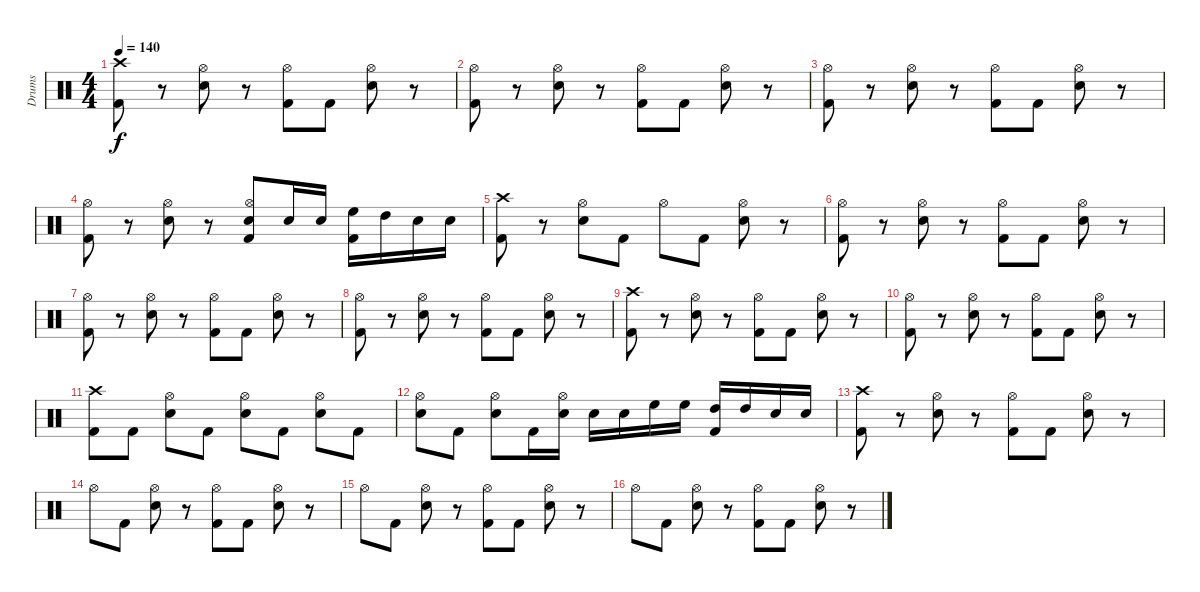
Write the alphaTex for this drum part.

\track ("Drums" "Drums") {instrument percussion}
\staff {score}
\articulation defaults
\ts (4 4)
\tempo 140
\clef neutral
\ks c
("Crash high (hit)" "Kick (hit) 2").8{dy f} r.8 ("Hi-Hat (open)" "Electric Snare (hit)").8 r.8 ("Hi-Hat (open)" "Kick (hit) 2").8 "Kick (hit) 2".8 ("Hi-Hat (open)" "Electric Snare (hit)").8 r.8 |
("Hi-Hat (open)" "Kick (hit) 2").8 r.8 ("Hi-Hat (open)" "Electric Snare (hit)").8 r.8 ("Hi-Hat (open)" "Kick (hit) 2").8 "Kick (hit) 2".8 ("Hi-Hat (open)" "Electric Snare (hit)").8 r.8 |
("Hi-Hat (open)" "Kick (hit) 2").8 r.8 ("Hi-Hat (open)" "Electric Snare (hit)").8 r.8 ("Hi-Hat (open)" "Kick (hit) 2").8 "Kick (hit) 2".8 ("Hi-Hat (open)" "Electric Snare (hit)").8 r.8 |
("Hi-Hat (open)" "Kick (hit) 2").8 r.8 ("Hi-Hat (open)" "Electric Snare (hit)").8 r.8 ("Hi-Hat (open)" "Electric Snare (hit)" "Kick (hit) 2").8 "Electric Snare (hit)".16 "Electric Snare (hit)".16 ("High Floor Tom (hit)" "Kick (hit) 2").16 "High Tom (hit)".16 "Electric Snare (hit)".16 "Electric Snare (hit)".16 |
("Crash high (hit)" "Kick (hit) 2").8 r.8 ("Hi-Hat (open)" "Electric Snare (hit)").8 "Kick (hit) 2".8 "Hi-Hat (open)".8 "Kick (hit) 2".8 ("Hi-Hat (open)" "Electric Snare (hit)").8 r.8 |
("Hi-Hat (open)" "Kick (hit) 2").8 r.8 ("Hi-Hat (open)" "Electric Snare (hit)").8 r.8 ("Hi-Hat (open)" "Kick (hit) 2").8 "Kick (hit) 2".8 ("Hi-Hat (open)" "Electric Snare (hit)").8 r.8 |
("Hi-Hat (open)" "Kick (hit) 2").8 r.8 ("Hi-Hat (open)" "Electric Snare (hit)").8 r.8 ("Hi-Hat (open)" "Kick (hit) 2").8 "Kick (hit) 2".8 ("Hi-Hat (open)" "Electric Snare (hit)").8 r.8 |
("Hi-Hat (open)" "Kick (hit) 2").8 r.8 ("Hi-Hat (open)" "Electric Snare (hit)").8 r.8 ("Hi-Hat (open)" "Kick (hit) 2").8 "Kick (hit) 2".8 ("Hi-Hat (open)" "Electric Snare (hit)").8 r.8 |
("Crash high (hit)" "Kick (hit) 2").8 r.8 ("Hi-Hat (open)" "Electric Snare (hit)").8 r.8 ("Hi-Hat (open)" "Kick (hit) 2").8 "Kick (hit) 2".8 ("Hi-Hat (open)" "Electric Snare (hit)").8 r.8 |
("Hi-Hat (open)" "Kick (hit) 2").8 r.8 ("Hi-Hat (open)" "Electric Snare (hit)").8 r.8 ("Hi-Hat (open)" "Kick (hit) 2").8 "Kick (hit) 2".8 ("Hi-Hat (open)" "Electric Snare (hit)").8 r.8 |
("Crash high (hit)" "Kick (hit) 2").8 "Kick (hit) 2".8 ("Hi-Hat (open)" "Electric Snare (hit)").8 "Kick (hit) 2".8 ("Hi-Hat (open)" "Electric Snare (hit)").8 "Kick (hit) 2".8 ("Hi-Hat (open)" "Electric Snare (hit)").8 "Kick (hit) 2".8 |
("Hi-Hat (open)" "Electric Snare (hit)").8 "Kick (hit) 2".8 ("Hi-Hat (open)" "Electric Snare (hit)").8 "Kick (hit) 2".16 ("Hi-Hat (open)" "Electric Snare (hit)").16 "Electric Snare (hit)".16 "Electric Snare (hit)".16 "High Floor Tom (hit)".16 "High Floor Tom (hit)".16 ("High Tom (hit)" "Kick (hit) 2").16 "High Tom (hit)".16 "Electric Snare (hit)".16 "Electric Snare (hit)".16 |
("Crash high (hit)" "Kick (hit) 2").8 r.8 ("Hi-Hat (open)" "Electric Snare (hit)").8 r.8 ("Hi-Hat (open)" "Kick (hit) 2").8 "Kick (hit) 2".8 ("Hi-Hat (open)" "Electric Snare (hit)").8 r.8 |
"Hi-Hat (open)".8 "Kick (hit) 2".8 ("Hi-Hat (open)" "Electric Snare (hit)").8 r.8 ("Hi-Hat (open)" "Kick (hit) 2").8 "Kick (hit) 2".8 ("Hi-Hat (open)" "Electric Snare (hit)").8 r.8 |
"Hi-Hat (open)".8 "Kick (hit) 2".8 ("Hi-Hat (open)" "Electric Snare (hit)").8 r.8 ("Hi-Hat (open)" "Kick (hit) 2").8 "Kick (hit) 2".8 ("Hi-Hat (open)" "Electric Snare (hit)").8 r.8 |
"Hi-Hat (open)".8 "Kick (hit) 2".8 ("Hi-Hat (open)" "Electric Snare (hit)").8 r.8 ("Hi-Hat (open)" "Kick (hit) 2").8 "Kick (hit) 2".8 ("Hi-Hat (open)" "Electric Snare (hit)").8 r.8
